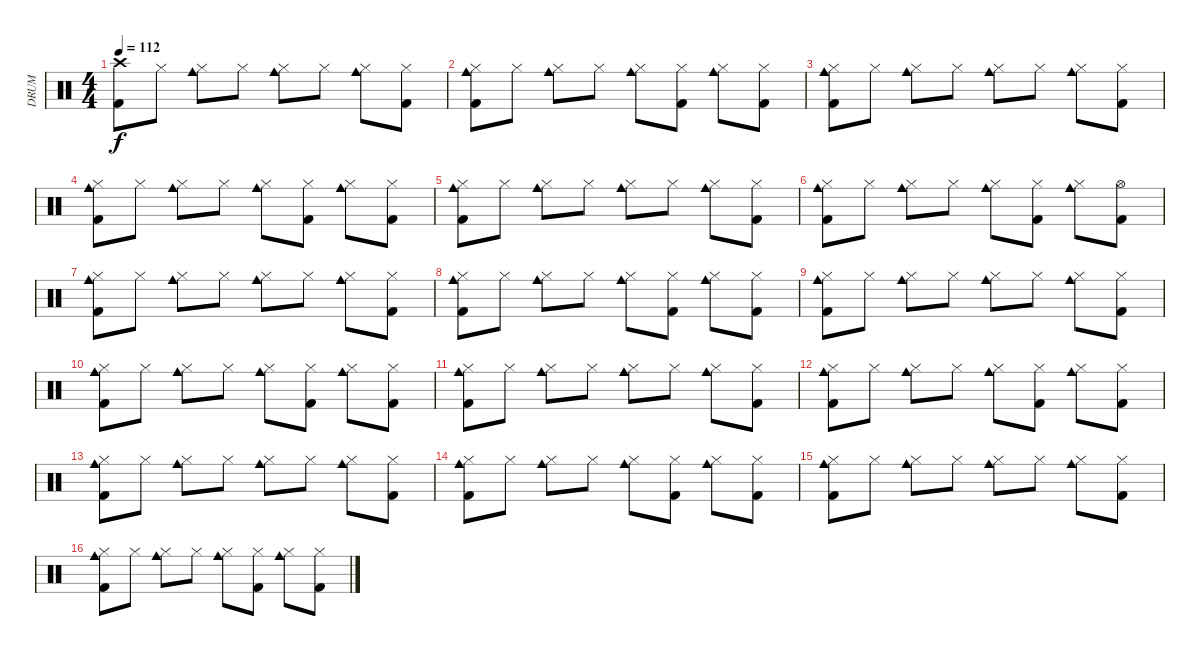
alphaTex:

\track ("DRUM" "DRUM") {instrument percussion}
\staff {score}
\articulation defaults
\ts (4 4)
\tempo 112
\clef neutral
\ks c
("Crash high (hit)" "Kick (hit) 2").8{dy f volume 13} "Hi-Hat (closed)".8 ("Cowbell medium (hit)" "Hi-Hat (closed)").8 "Hi-Hat (closed)".8 ("Cowbell medium (hit)" "Hi-Hat (closed)").8 "Hi-Hat (closed)".8 ("Cowbell medium (hit)" "Hi-Hat (closed)").8 ("Hi-Hat (closed)" "Kick (hit) 2").8 |
("Cowbell medium (hit)" "Hi-Hat (closed)" "Kick (hit) 2").8 "Hi-Hat (closed)".8 ("Cowbell medium (hit)" "Hi-Hat (closed)").8 "Hi-Hat (closed)".8 ("Cowbell medium (hit)" "Hi-Hat (closed)").8 ("Hi-Hat (closed)" "Kick (hit) 2").8 ("Cowbell medium (hit)" "Hi-Hat (closed)").8 ("Hi-Hat (closed)" "Kick (hit) 2").8 |
("Cowbell medium (hit)" "Hi-Hat (closed)" "Kick (hit) 2").8 "Hi-Hat (closed)".8 ("Cowbell medium (hit)" "Hi-Hat (closed)").8 "Hi-Hat (closed)".8 ("Cowbell medium (hit)" "Hi-Hat (closed)").8 "Hi-Hat (closed)".8 ("Cowbell medium (hit)" "Hi-Hat (closed)").8 ("Hi-Hat (closed)" "Kick (hit) 2").8 |
("Cowbell medium (hit)" "Hi-Hat (closed)" "Kick (hit) 2").8 "Hi-Hat (closed)".8 ("Cowbell medium (hit)" "Hi-Hat (closed)").8 "Hi-Hat (closed)".8 ("Cowbell medium (hit)" "Hi-Hat (closed)").8 ("Hi-Hat (closed)" "Kick (hit) 2").8 ("Cowbell medium (hit)" "Hi-Hat (closed)").8 ("Hi-Hat (closed)" "Kick (hit) 2").8 |
("Cowbell medium (hit)" "Hi-Hat (closed)" "Kick (hit) 2").8 "Hi-Hat (closed)".8 ("Cowbell medium (hit)" "Hi-Hat (closed)").8 "Hi-Hat (closed)".8 ("Cowbell medium (hit)" "Hi-Hat (closed)").8 "Hi-Hat (closed)".8 ("Cowbell medium (hit)" "Hi-Hat (closed)").8 ("Hi-Hat (closed)" "Kick (hit) 2").8 |
("Cowbell medium (hit)" "Hi-Hat (closed)" "Kick (hit) 2").8 "Hi-Hat (closed)".8 ("Cowbell medium (hit)" "Hi-Hat (closed)").8 "Hi-Hat (closed)".8 ("Cowbell medium (hit)" "Hi-Hat (closed)").8 ("Hi-Hat (closed)" "Kick (hit) 2").8 ("Cowbell medium (hit)" "Hi-Hat (closed)").8 ("Hi-Hat (open)" "Kick (hit) 2").8 |
("Cowbell medium (hit)" "Hi-Hat (closed)" "Kick (hit) 2").8 "Hi-Hat (closed)".8 ("Cowbell medium (hit)" "Hi-Hat (closed)").8 "Hi-Hat (closed)".8 ("Cowbell medium (hit)" "Hi-Hat (closed)").8 "Hi-Hat (closed)".8 ("Cowbell medium (hit)" "Hi-Hat (closed)").8 ("Hi-Hat (closed)" "Kick (hit) 2").8 |
("Cowbell medium (hit)" "Hi-Hat (closed)" "Kick (hit) 2").8 "Hi-Hat (closed)".8 ("Cowbell medium (hit)" "Hi-Hat (closed)").8 "Hi-Hat (closed)".8 ("Cowbell medium (hit)" "Hi-Hat (closed)").8 ("Hi-Hat (closed)" "Kick (hit) 2").8 ("Cowbell medium (hit)" "Hi-Hat (closed)").8 ("Hi-Hat (closed)" "Kick (hit) 2").8 |
("Cowbell medium (hit)" "Hi-Hat (closed)" "Kick (hit) 2").8 "Hi-Hat (closed)".8 ("Cowbell medium (hit)" "Hi-Hat (closed)").8 "Hi-Hat (closed)".8 ("Cowbell medium (hit)" "Hi-Hat (closed)").8 "Hi-Hat (closed)".8 ("Cowbell medium (hit)" "Hi-Hat (closed)").8 ("Hi-Hat (closed)" "Kick (hit) 2").8 |
("Cowbell medium (hit)" "Hi-Hat (closed)" "Kick (hit) 2").8 "Hi-Hat (closed)".8 ("Cowbell medium (hit)" "Hi-Hat (closed)").8 "Hi-Hat (closed)".8 ("Cowbell medium (hit)" "Hi-Hat (closed)").8 ("Hi-Hat (closed)" "Kick (hit) 2").8 ("Cowbell medium (hit)" "Hi-Hat (closed)").8 ("Hi-Hat (closed)" "Kick (hit) 2").8 |
("Cowbell medium (hit)" "Hi-Hat (closed)" "Kick (hit) 2").8 "Hi-Hat (closed)".8 ("Cowbell medium (hit)" "Hi-Hat (closed)").8 "Hi-Hat (closed)".8 ("Cowbell medium (hit)" "Hi-Hat (closed)").8 "Hi-Hat (closed)".8 ("Cowbell medium (hit)" "Hi-Hat (closed)").8 ("Hi-Hat (closed)" "Kick (hit) 2").8 |
("Cowbell medium (hit)" "Hi-Hat (closed)" "Kick (hit) 2").8 "Hi-Hat (closed)".8 ("Cowbell medium (hit)" "Hi-Hat (closed)").8 "Hi-Hat (closed)".8 ("Cowbell medium (hit)" "Hi-Hat (closed)").8 ("Hi-Hat (closed)" "Kick (hit) 2").8 ("Cowbell medium (hit)" "Hi-Hat (closed)").8 ("Hi-Hat (closed)" "Kick (hit) 2").8 |
("Cowbell medium (hit)" "Hi-Hat (closed)" "Kick (hit) 2").8 "Hi-Hat (closed)".8 ("Cowbell medium (hit)" "Hi-Hat (closed)").8 "Hi-Hat (closed)".8 ("Cowbell medium (hit)" "Hi-Hat (closed)").8 "Hi-Hat (closed)".8 ("Cowbell medium (hit)" "Hi-Hat (closed)").8 ("Hi-Hat (closed)" "Kick (hit) 2").8 |
("Cowbell medium (hit)" "Hi-Hat (closed)" "Kick (hit) 2").8 "Hi-Hat (closed)".8 ("Cowbell medium (hit)" "Hi-Hat (closed)").8 "Hi-Hat (closed)".8 ("Cowbell medium (hit)" "Hi-Hat (closed)").8 ("Hi-Hat (closed)" "Kick (hit) 2").8 ("Cowbell medium (hit)" "Hi-Hat (closed)").8 ("Hi-Hat (closed)" "Kick (hit) 2").8 |
("Cowbell medium (hit)" "Hi-Hat (closed)" "Kick (hit) 2").8 "Hi-Hat (closed)".8 ("Cowbell medium (hit)" "Hi-Hat (closed)").8 "Hi-Hat (closed)".8 ("Cowbell medium (hit)" "Hi-Hat (closed)").8 "Hi-Hat (closed)".8 ("Cowbell medium (hit)" "Hi-Hat (closed)").8 ("Hi-Hat (closed)" "Kick (hit) 2").8 |
("Cowbell medium (hit)" "Hi-Hat (closed)" "Kick (hit) 2").8 "Hi-Hat (closed)".8 ("Cowbell medium (hit)" "Hi-Hat (closed)").8 "Hi-Hat (closed)".8 ("Cowbell medium (hit)" "Hi-Hat (closed)").8 ("Hi-Hat (closed)" "Kick (hit) 2").8 ("Cowbell medium (hit)" "Hi-Hat (closed)").8 ("Hi-Hat (closed)" "Kick (hit) 2").8
